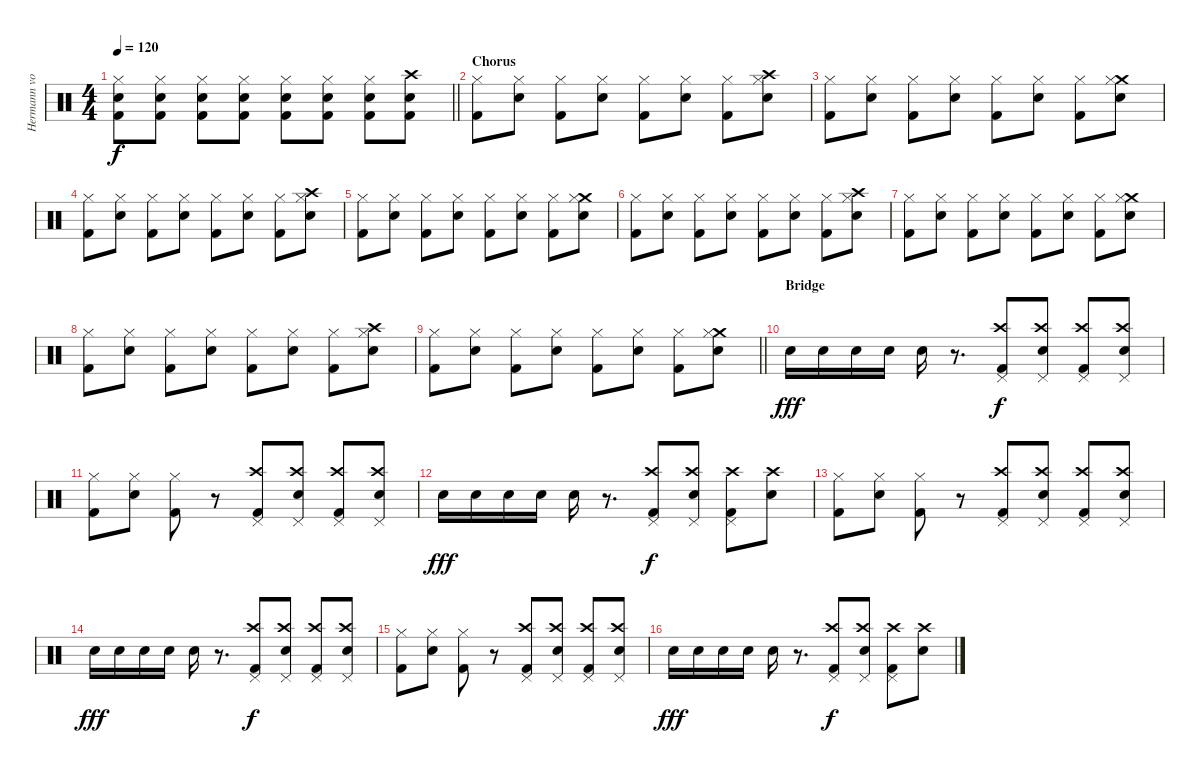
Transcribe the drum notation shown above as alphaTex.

\track ("Hermann von Hinten (Drums)" "Hermann vo") {instrument percussion}
\staff {score}
\articulation defaults
\ts (4 4)
\tempo 120
\clef neutral
\barLineRight lightlight
\ks c
("Hi-Hat (closed)" "Snare (hit) 2" "Kick (hit) 2").8{dy f} ("Hi-Hat (closed)" "Snare (hit) 2" "Kick (hit) 2").8 ("Hi-Hat (closed)" "Snare (hit) 2" "Kick (hit) 2").8 ("Hi-Hat (closed)" "Snare (hit) 2" "Kick (hit) 2").8 ("Hi-Hat (closed)" "Snare (hit) 2" "Kick (hit) 2").8 ("Hi-Hat (closed)" "Snare (hit) 2" "Kick (hit) 2").8 ("Hi-Hat (closed)" "Snare (hit) 2" "Kick (hit) 2").8 ("Crash high (hit)" "Snare (hit) 2" "Kick (hit) 2").8 |
\section ("" "Chorus ")
("Hi-Hat (closed)" "Kick (hit) 2").8 ("Hi-Hat (closed)" "Snare (hit) 2").8 ("Hi-Hat (closed)" "Kick (hit) 2").8 ("Hi-Hat (closed)" "Snare (hit) 2").8 ("Hi-Hat (closed)" "Kick (hit) 2").8 ("Hi-Hat (closed)" "Snare (hit) 2").8 ("Hi-Hat (closed)" "Kick (hit) 2").8 ("Crash high (hit)" "Hi-Hat (closed)" "Snare (hit) 2").8 |
("Hi-Hat (closed)" "Kick (hit) 2").8 ("Hi-Hat (closed)" "Snare (hit) 2").8 ("Hi-Hat (closed)" "Kick (hit) 2").8 ("Hi-Hat (closed)" "Snare (hit) 2").8 ("Hi-Hat (closed)" "Kick (hit) 2").8 ("Hi-Hat (closed)" "Snare (hit) 2").8 ("Hi-Hat (closed)" "Kick (hit) 2").8 ("Crash medium (hit)" "Hi-Hat (closed)" "Snare (hit) 2").8 |
("Hi-Hat (closed)" "Kick (hit) 2").8 ("Hi-Hat (closed)" "Snare (hit) 2").8 ("Hi-Hat (closed)" "Kick (hit) 2").8 ("Hi-Hat (closed)" "Snare (hit) 2").8 ("Hi-Hat (closed)" "Kick (hit) 2").8 ("Hi-Hat (closed)" "Snare (hit) 2").8 ("Hi-Hat (closed)" "Kick (hit) 2").8 ("Crash high (hit)" "Hi-Hat (closed)" "Snare (hit) 2").8 |
("Hi-Hat (closed)" "Kick (hit) 2").8 ("Hi-Hat (closed)" "Snare (hit) 2").8 ("Hi-Hat (closed)" "Kick (hit) 2").8 ("Hi-Hat (closed)" "Snare (hit) 2").8 ("Hi-Hat (closed)" "Kick (hit) 2").8 ("Hi-Hat (closed)" "Snare (hit) 2").8 ("Hi-Hat (closed)" "Kick (hit) 2").8 ("Crash medium (hit)" "Hi-Hat (closed)" "Snare (hit) 2").8 |
("Hi-Hat (closed)" "Kick (hit) 2").8 ("Hi-Hat (closed)" "Snare (hit) 2").8 ("Hi-Hat (closed)" "Kick (hit) 2").8 ("Hi-Hat (closed)" "Snare (hit) 2").8 ("Hi-Hat (closed)" "Kick (hit) 2").8 ("Hi-Hat (closed)" "Snare (hit) 2").8 ("Hi-Hat (closed)" "Kick (hit) 2").8 ("Crash high (hit)" "Hi-Hat (closed)" "Snare (hit) 2").8 |
("Hi-Hat (closed)" "Kick (hit) 2").8 ("Hi-Hat (closed)" "Snare (hit) 2").8 ("Hi-Hat (closed)" "Kick (hit) 2").8 ("Hi-Hat (closed)" "Snare (hit) 2").8 ("Hi-Hat (closed)" "Kick (hit) 2").8 ("Hi-Hat (closed)" "Snare (hit) 2").8 ("Hi-Hat (closed)" "Kick (hit) 2").8 ("Crash medium (hit)" "Hi-Hat (closed)" "Snare (hit) 2").8 |
("Hi-Hat (closed)" "Kick (hit) 2").8 ("Hi-Hat (closed)" "Snare (hit) 2").8 ("Hi-Hat (closed)" "Kick (hit) 2").8 ("Hi-Hat (closed)" "Snare (hit) 2").8 ("Hi-Hat (closed)" "Kick (hit) 2").8 ("Hi-Hat (closed)" "Snare (hit) 2").8 ("Hi-Hat (closed)" "Kick (hit) 2").8 ("Crash high (hit)" "Hi-Hat (closed)" "Snare (hit) 2").8 |
\barLineRight lightlight
("Hi-Hat (closed)" "Kick (hit) 2").8 ("Hi-Hat (closed)" "Snare (hit) 2").8 ("Hi-Hat (closed)" "Kick (hit) 2").8 ("Hi-Hat (closed)" "Snare (hit) 2").8 ("Hi-Hat (closed)" "Kick (hit) 2").8 ("Hi-Hat (closed)" "Snare (hit) 2").8 ("Hi-Hat (closed)" "Kick (hit) 2").8 ("Crash medium (hit)" "Hi-Hat (closed)" "Snare (hit) 2").8 |
\section ("" "Bridge")
"Snare (hit) 2".16{dy fff} "Snare (hit) 2".16 "Snare (hit) 2".16 "Snare (hit) 2".16 "Snare (hit) 2".16 r.8{d} ("Crash high (hit)" "Pedal Hi-Hat (hit)" "Kick (hit) 2").8{dy f} ("Crash high (hit)" "Snare (hit) 2" "Pedal Hi-Hat (hit)").8 ("Crash high (hit)" "Pedal Hi-Hat (hit)" "Kick (hit) 2").8 ("Crash high (hit)" "Snare (hit) 2" "Pedal Hi-Hat (hit)").8 |
("Hi-Hat (closed)" "Kick (hit) 2").8 ("Hi-Hat (closed)" "Snare (hit) 2").8 ("Hi-Hat (closed)" "Kick (hit) 2").8 r.8 ("Crash high (hit)" "Pedal Hi-Hat (hit)" "Kick (hit) 2").8 ("Crash high (hit)" "Snare (hit) 2" "Pedal Hi-Hat (hit)").8 ("Crash high (hit)" "Pedal Hi-Hat (hit)" "Kick (hit) 2").8 ("Crash high (hit)" "Snare (hit) 2" "Pedal Hi-Hat (hit)").8 |
"Snare (hit) 2".16{dy fff} "Snare (hit) 2".16 "Snare (hit) 2".16 "Snare (hit) 2".16 "Snare (hit) 2".16 r.8{d} ("Crash high (hit)" "Pedal Hi-Hat (hit)" "Kick (hit) 2").8{dy f} ("Crash high (hit)" "Snare (hit) 2" "Pedal Hi-Hat (hit)").8 ("Crash high (hit)" "Pedal Hi-Hat (hit)" "Kick (hit) 2").8 ("Crash high (hit)" "Snare (hit) 2").8 |
("Hi-Hat (closed)" "Kick (hit) 2").8 ("Hi-Hat (closed)" "Snare (hit) 2").8 ("Hi-Hat (closed)" "Kick (hit) 2").8 r.8 ("Crash high (hit)" "Pedal Hi-Hat (hit)" "Kick (hit) 2").8 ("Crash high (hit)" "Snare (hit) 2" "Pedal Hi-Hat (hit)").8 ("Crash high (hit)" "Pedal Hi-Hat (hit)" "Kick (hit) 2").8 ("Crash high (hit)" "Snare (hit) 2" "Pedal Hi-Hat (hit)").8 |
"Snare (hit) 2".16{dy fff} "Snare (hit) 2".16 "Snare (hit) 2".16 "Snare (hit) 2".16 "Snare (hit) 2".16 r.8{d} ("Crash high (hit)" "Pedal Hi-Hat (hit)" "Kick (hit) 2").8{dy f} ("Crash high (hit)" "Snare (hit) 2" "Pedal Hi-Hat (hit)").8 ("Crash high (hit)" "Pedal Hi-Hat (hit)" "Kick (hit) 2").8 ("Crash high (hit)" "Snare (hit) 2" "Pedal Hi-Hat (hit)").8 |
("Hi-Hat (closed)" "Kick (hit) 2").8 ("Hi-Hat (closed)" "Snare (hit) 2").8 ("Hi-Hat (closed)" "Kick (hit) 2").8 r.8 ("Crash high (hit)" "Pedal Hi-Hat (hit)" "Kick (hit) 2").8 ("Crash high (hit)" "Snare (hit) 2" "Pedal Hi-Hat (hit)").8 ("Crash high (hit)" "Pedal Hi-Hat (hit)" "Kick (hit) 2").8 ("Crash high (hit)" "Snare (hit) 2" "Pedal Hi-Hat (hit)").8 |
"Snare (hit) 2".16{dy fff} "Snare (hit) 2".16 "Snare (hit) 2".16 "Snare (hit) 2".16 "Snare (hit) 2".16 r.8{d} ("Crash high (hit)" "Pedal Hi-Hat (hit)" "Kick (hit) 2").8{dy f} ("Crash high (hit)" "Snare (hit) 2" "Pedal Hi-Hat (hit)").8 ("Crash high (hit)" "Pedal Hi-Hat (hit)" "Kick (hit) 2").8 ("Crash high (hit)" "Snare (hit) 2").8
